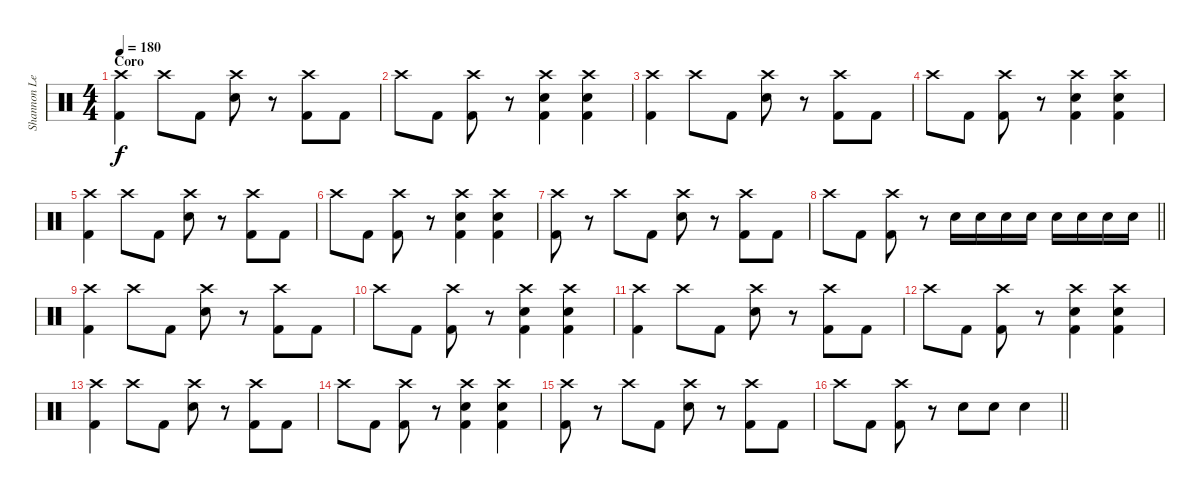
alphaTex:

\track ("Shannon Leto" "Shannon Le") {instrument percussion}
\staff {score}
\articulation defaults
\ts (4 4)
\section ("" "Coro")
\tempo 180
\clef neutral
\ks c
("Crash high (hit)" "Kick (hit) 2").4{dy f} "Crash high (hit)".8 "Kick (hit) 2".8 ("Crash high (hit)" "Snare (hit) 2").8 r.8 ("Crash high (hit)" "Kick (hit) 2").8 "Kick (hit) 2".8 |
"Crash high (hit)".8 "Kick (hit) 2".8 ("Crash high (hit)" "Kick (hit) 2").8 r.8 ("Crash high (hit)" "Snare (hit) 2" "Kick (hit) 2").4 ("Crash high (hit)" "Snare (hit) 2" "Kick (hit) 2").4 |
("Crash high (hit)" "Kick (hit) 2").4 "Crash high (hit)".8 "Kick (hit) 2".8 ("Crash high (hit)" "Snare (hit) 2").8 r.8 ("Crash high (hit)" "Kick (hit) 2").8 "Kick (hit) 2".8 |
"Crash high (hit)".8 "Kick (hit) 2".8 ("Crash high (hit)" "Kick (hit) 2").8 r.8 ("Crash high (hit)" "Snare (hit) 2" "Kick (hit) 2").4 ("Crash high (hit)" "Snare (hit) 2" "Kick (hit) 2").4 |
("Crash high (hit)" "Kick (hit) 2").4 "Crash high (hit)".8 "Kick (hit) 2".8 ("Crash high (hit)" "Snare (hit) 2").8 r.8 ("Crash high (hit)" "Kick (hit) 2").8 "Kick (hit) 2".8 |
"Crash high (hit)".8 "Kick (hit) 2".8 ("Crash high (hit)" "Kick (hit) 2").8 r.8 ("Crash high (hit)" "Snare (hit) 2" "Kick (hit) 2").4 ("Crash high (hit)" "Snare (hit) 2" "Kick (hit) 2").4 |
("Crash high (hit)" "Kick (hit) 2").8 r.8 "Crash high (hit)".8 "Kick (hit) 2".8 ("Crash high (hit)" "Snare (hit) 2").8 r.8 ("Crash high (hit)" "Kick (hit) 2").8 "Kick (hit) 2".8 |
\barLineRight lightlight "Crash high (hit)".8 "Kick (hit) 2".8
("Crash high (hit)" "Kick (hit) 2").8 r.8 "Snare (hit) 2".16 "Snare (hit) 2".16 "Snare (hit) 2".16 "Snare (hit) 2".16 "Snare (hit) 2".16 "Snare (hit) 2".16 "Snare (hit) 2".16 "Snare (hit) 2".16 |
("Crash high (hit)" "Kick (hit) 2").4 "Crash high (hit)".8 "Kick (hit) 2".8 ("Crash high (hit)" "Snare (hit) 2").8 r.8 ("Crash high (hit)" "Kick (hit) 2").8 "Kick (hit) 2".8 |
"Crash high (hit)".8 "Kick (hit) 2".8 ("Crash high (hit)" "Kick (hit) 2").8 r.8 ("Crash high (hit)" "Snare (hit) 2" "Kick (hit) 2").4 ("Crash high (hit)" "Snare (hit) 2" "Kick (hit) 2").4 |
("Crash high (hit)" "Kick (hit) 2").4 "Crash high (hit)".8 "Kick (hit) 2".8 ("Crash high (hit)" "Snare (hit) 2").8 r.8 ("Crash high (hit)" "Kick (hit) 2").8 "Kick (hit) 2".8 |
"Crash high (hit)".8 "Kick (hit) 2".8 ("Crash high (hit)" "Kick (hit) 2").8 r.8 ("Crash high (hit)" "Snare (hit) 2" "Kick (hit) 2").4 ("Crash high (hit)" "Snare (hit) 2" "Kick (hit) 2").4 |
("Crash high (hit)" "Kick (hit) 2").4 "Crash high (hit)".8 "Kick (hit) 2".8 ("Crash high (hit)" "Snare (hit) 2").8 r.8 ("Crash high (hit)" "Kick (hit) 2").8 "Kick (hit) 2".8 |
"Crash high (hit)".8 "Kick (hit) 2".8 ("Crash high (hit)" "Kick (hit) 2").8 r.8 ("Crash high (hit)" "Snare (hit) 2" "Kick (hit) 2").4 ("Crash high (hit)" "Snare (hit) 2" "Kick (hit) 2").4 |
("Crash high (hit)" "Kick (hit) 2").8 r.8 "Crash high (hit)".8 "Kick (hit) 2".8 ("Crash high (hit)" "Snare (hit) 2").8 r.8 ("Crash high (hit)" "Kick (hit) 2").8 "Kick (hit) 2".8 |
\barLineRight lightlight "Crash high (hit)".8 "Kick (hit) 2".8
("Crash high (hit)" "Kick (hit) 2").8 r.8 "Snare (hit) 2".8 "Snare (hit) 2".8 "Snare (hit) 2".4
